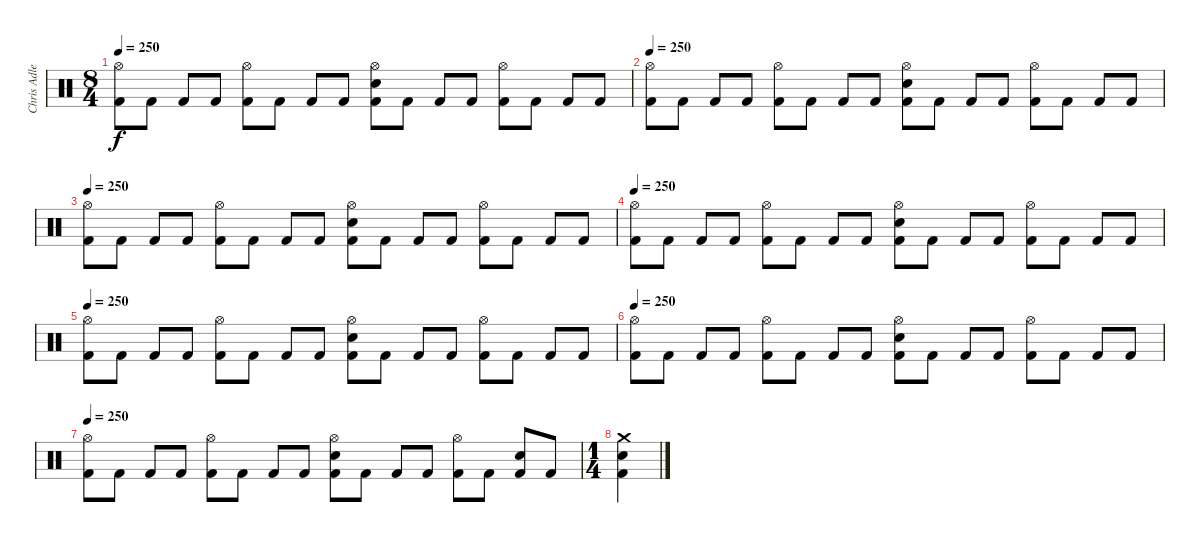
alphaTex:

\track ("Chris Adler" "Chris Adle") {instrument percussion}
\staff {score}
\articulation defaults
\ts (8 4)
\tempo 250
\clef neutral
\ks c
("Hi-Hat (open)" "Kick (hit) 2").8{dy f} "Kick (hit) 2".8 "Kick (hit) 2".8 "Kick (hit) 2".8 ("Hi-Hat (open)" "Kick (hit) 2").8 "Kick (hit) 2".8 "Kick (hit) 2".8 "Kick (hit) 2".8 ("Hi-Hat (open)" "Snare (hit) 2" "Kick (hit) 2").8 "Kick (hit) 2".8 "Kick (hit) 2".8 "Kick (hit) 2".8 ("Hi-Hat (open)" "Kick (hit) 2").8 "Kick (hit) 2".8 "Kick (hit) 2".8 "Kick (hit) 2".8 |
\tempo 250
("Hi-Hat (open)" "Kick (hit) 2").8 "Kick (hit) 2".8 "Kick (hit) 2".8 "Kick (hit) 2".8 ("Hi-Hat (open)" "Kick (hit) 2").8 "Kick (hit) 2".8 "Kick (hit) 2".8 "Kick (hit) 2".8 ("Hi-Hat (open)" "Snare (hit) 2" "Kick (hit) 2").8 "Kick (hit) 2".8 "Kick (hit) 2".8 "Kick (hit) 2".8 ("Hi-Hat (open)" "Kick (hit) 2").8 "Kick (hit) 2".8 "Kick (hit) 2".8 "Kick (hit) 2".8 |
\tempo 250
("Hi-Hat (open)" "Kick (hit) 2").8 "Kick (hit) 2".8 "Kick (hit) 2".8 "Kick (hit) 2".8 ("Hi-Hat (open)" "Kick (hit) 2").8 "Kick (hit) 2".8 "Kick (hit) 2".8 "Kick (hit) 2".8 ("Hi-Hat (open)" "Snare (hit) 2" "Kick (hit) 2").8 "Kick (hit) 2".8 "Kick (hit) 2".8 "Kick (hit) 2".8 ("Hi-Hat (open)" "Kick (hit) 2").8 "Kick (hit) 2".8 "Kick (hit) 2".8 "Kick (hit) 2".8 |
\tempo 250
("Hi-Hat (open)" "Kick (hit) 2").8 "Kick (hit) 2".8 "Kick (hit) 2".8 "Kick (hit) 2".8 ("Hi-Hat (open)" "Kick (hit) 2").8 "Kick (hit) 2".8 "Kick (hit) 2".8 "Kick (hit) 2".8 ("Hi-Hat (open)" "Snare (hit) 2" "Kick (hit) 2").8 "Kick (hit) 2".8 "Kick (hit) 2".8 "Kick (hit) 2".8 ("Hi-Hat (open)" "Kick (hit) 2").8 "Kick (hit) 2".8 "Kick (hit) 2".8 "Kick (hit) 2".8 |
\tempo 250
("Hi-Hat (open)" "Kick (hit) 2").8 "Kick (hit) 2".8 "Kick (hit) 2".8 "Kick (hit) 2".8 ("Hi-Hat (open)" "Kick (hit) 2").8 "Kick (hit) 2".8 "Kick (hit) 2".8 "Kick (hit) 2".8 ("Hi-Hat (open)" "Snare (hit) 2" "Kick (hit) 2").8 "Kick (hit) 2".8 "Kick (hit) 2".8 "Kick (hit) 2".8 ("Hi-Hat (open)" "Kick (hit) 2").8 "Kick (hit) 2".8 "Kick (hit) 2".8 "Kick (hit) 2".8 |
\tempo 250
("Hi-Hat (open)" "Kick (hit) 2").8 "Kick (hit) 2".8 "Kick (hit) 2".8 "Kick (hit) 2".8 ("Hi-Hat (open)" "Kick (hit) 2").8 "Kick (hit) 2".8 "Kick (hit) 2".8 "Kick (hit) 2".8 ("Hi-Hat (open)" "Snare (hit) 2" "Kick (hit) 2").8 "Kick (hit) 2".8 "Kick (hit) 2".8 "Kick (hit) 2".8 ("Hi-Hat (open)" "Kick (hit) 2").8 "Kick (hit) 2".8 "Kick (hit) 2".8 "Kick (hit) 2".8 |
\tempo 250
("Hi-Hat (open)" "Kick (hit) 2").8 "Kick (hit) 2".8 "Kick (hit) 2".8 "Kick (hit) 2".8 ("Hi-Hat (open)" "Kick (hit) 2").8 "Kick (hit) 2".8 "Kick (hit) 2".8 "Kick (hit) 2".8 ("Hi-Hat (open)" "Snare (hit) 2" "Kick (hit) 2").8 "Kick (hit) 2".8 "Kick (hit) 2".8 "Kick (hit) 2".8 ("Hi-Hat (open)" "Kick (hit) 2").8 "Kick (hit) 2".8 ("Snare (hit) 2" "Kick (hit) 2").8 "Kick (hit) 2".8 |
\ts (1 4)
("Crash medium (hit)" "Snare (hit) 2" "Kick (hit) 2").4
